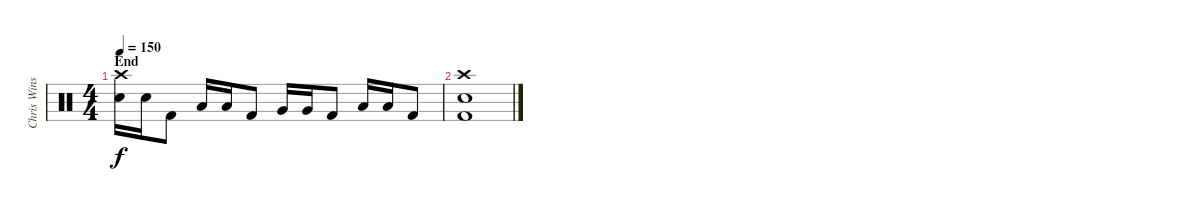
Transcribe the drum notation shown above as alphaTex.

\track ("Chris Winship (Drums)" "Chris Wins") {instrument percussion}
\staff {score}
\articulation defaults
\ts (4 4)
\section ("" "End")
\tempo 150
\clef neutral
\ks c
("Crash high (hit)" "Electric Snare (hit)").16{dy f} "Electric Snare (hit)".16 "Kick (hit) 2".8 "Low Tom (hit)".16 "Low Tom (hit)".16 "Kick (hit) 2".8 "Very Low Tom (hit)".16 "Very Low Tom (hit)".16 "Kick (hit) 2".8 "Low Floor Tom (hit)".16 "Low Floor Tom (hit)".16 "Kick (hit) 2".8 |
("Crash high (hit)" "Electric Snare (hit)" "Kick (hit) 2").1
